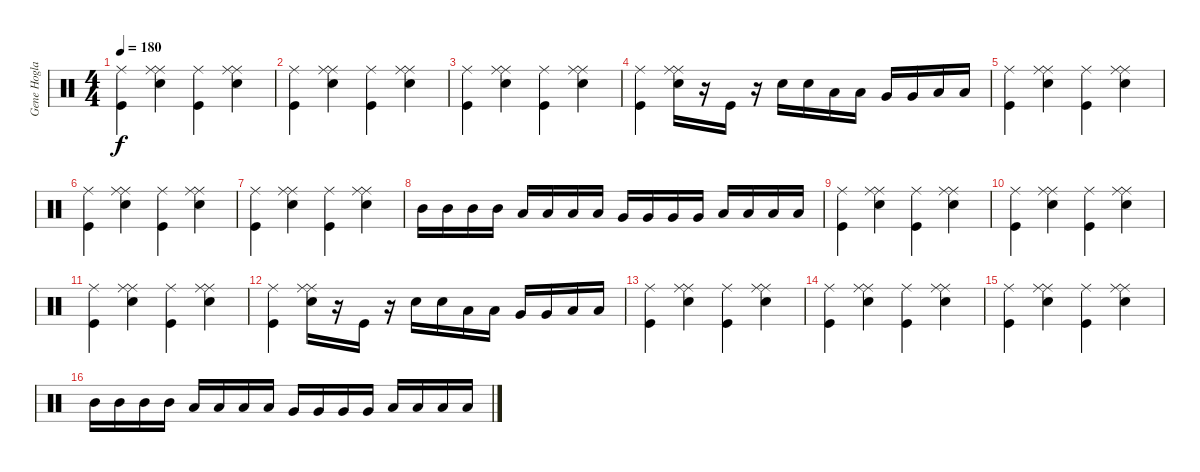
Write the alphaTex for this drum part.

\track ("Gene Hoglan" "Gene Hogla") {instrument percussion}
\staff {score}
\articulation defaults
\ts (4 4)
\tempo 180
\clef neutral
\ks c
("Ride (middle)" "Kick (hit)").4{dy f} ("Ride (middle)" "Ride (middle)" "Snare (hit) 2").4 ("Ride (middle)" "Kick (hit)").4 ("Ride (middle)" "Ride (middle)" "Snare (hit) 2").4 |
("Ride (middle)" "Kick (hit)").4 ("Ride (middle)" "Ride (middle)" "Snare (hit) 2").4 ("Ride (middle)" "Kick (hit)").4 ("Ride (middle)" "Ride (middle)" "Snare (hit) 2").4 |
("Ride (middle)" "Kick (hit)").4 ("Ride (middle)" "Ride (middle)" "Snare (hit) 2").4 ("Ride (middle)" "Kick (hit)").4 ("Ride (middle)" "Ride (middle)" "Snare (hit) 2").4 |
("Ride (middle)" "Kick (hit)").4 ("Ride (middle)" "Ride (middle)" "Snare (hit) 2").16 r.16 "Kick (hit)".16 r.16 "Snare (hit) 2".16 "Snare (hit) 2".16 "Low Tom (hit)".16 "Low Tom (hit)".16 "Very Low Tom (hit)".16 "Very Low Tom (hit)".16 "Low Floor Tom (hit)".16 "Low Floor Tom (hit)".16 |
("Ride (middle)" "Kick (hit)").4 ("Ride (middle)" "Ride (middle)" "Snare (hit) 2").4 ("Ride (middle)" "Kick (hit)").4 ("Ride (middle)" "Ride (middle)" "Snare (hit) 2").4 |
("Ride (middle)" "Kick (hit)").4 ("Ride (middle)" "Ride (middle)" "Snare (hit) 2").4 ("Ride (middle)" "Kick (hit)").4 ("Ride (middle)" "Ride (middle)" "Snare (hit) 2").4 |
("Ride (middle)" "Kick (hit)").4 ("Ride (middle)" "Ride (middle)" "Snare (hit) 2").4 ("Ride (middle)" "Kick (hit)").4 ("Ride (middle)" "Ride (middle)" "Snare (hit) 2").4 |
"Mid Tom (hit)".16 "Mid Tom (hit)".16 "Mid Tom (hit)".16 "Mid Tom (hit)".16 "Low Tom (hit)".16 "Low Tom (hit)".16 "Low Tom (hit)".16 "Low Tom (hit)".16 "Very Low Tom (hit)".16 "Very Low Tom (hit)".16 "Very Low Tom (hit)".16 "Very Low Tom (hit)".16 "Low Floor Tom (hit)".16 "Low Floor Tom (hit)".16 "Low Floor Tom (hit)".16 "Low Floor Tom (hit)".16 |
("Ride (middle)" "Kick (hit)").4 ("Ride (middle)" "Ride (middle)" "Snare (hit) 2").4 ("Ride (middle)" "Kick (hit)").4 ("Ride (middle)" "Ride (middle)" "Snare (hit) 2").4 |
("Ride (middle)" "Kick (hit)").4 ("Ride (middle)" "Ride (middle)" "Snare (hit) 2").4 ("Ride (middle)" "Kick (hit)").4 ("Ride (middle)" "Ride (middle)" "Snare (hit) 2").4 |
("Ride (middle)" "Kick (hit)").4 ("Ride (middle)" "Ride (middle)" "Snare (hit) 2").4 ("Ride (middle)" "Kick (hit)").4 ("Ride (middle)" "Ride (middle)" "Snare (hit) 2").4 |
("Ride (middle)" "Kick (hit)").4 ("Ride (middle)" "Ride (middle)" "Snare (hit) 2").16 r.16 "Kick (hit)".16 r.16 "Snare (hit) 2".16 "Snare (hit) 2".16 "Low Tom (hit)".16 "Low Tom (hit)".16 "Very Low Tom (hit)".16 "Very Low Tom (hit)".16 "Low Floor Tom (hit)".16 "Low Floor Tom (hit)".16 |
("Ride (middle)" "Kick (hit)").4 ("Ride (middle)" "Ride (middle)" "Snare (hit) 2").4 ("Ride (middle)" "Kick (hit)").4 ("Ride (middle)" "Ride (middle)" "Snare (hit) 2").4 |
("Ride (middle)" "Kick (hit)").4 ("Ride (middle)" "Ride (middle)" "Snare (hit) 2").4 ("Ride (middle)" "Kick (hit)").4 ("Ride (middle)" "Ride (middle)" "Snare (hit) 2").4 |
("Ride (middle)" "Kick (hit)").4 ("Ride (middle)" "Ride (middle)" "Snare (hit) 2").4 ("Ride (middle)" "Kick (hit)").4 ("Ride (middle)" "Ride (middle)" "Snare (hit) 2").4 |
"Mid Tom (hit)".16 "Mid Tom (hit)".16 "Mid Tom (hit)".16 "Mid Tom (hit)".16 "Low Tom (hit)".16 "Low Tom (hit)".16 "Low Tom (hit)".16 "Low Tom (hit)".16 "Very Low Tom (hit)".16 "Very Low Tom (hit)".16 "Very Low Tom (hit)".16 "Very Low Tom (hit)".16 "Low Floor Tom (hit)".16 "Low Floor Tom (hit)".16 "Low Floor Tom (hit)".16 "Low Floor Tom (hit)".16
